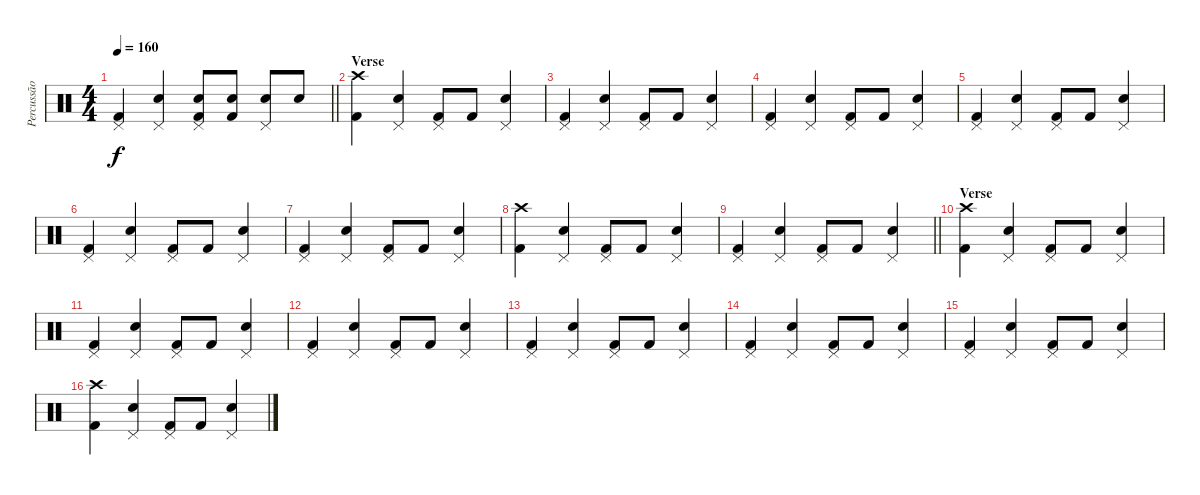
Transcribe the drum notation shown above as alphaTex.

\track ("Percussão" "Percussão") {instrument percussion}
\staff {score}
\articulation defaults
\ts (4 4)
\tempo 160
\clef neutral
\barLineRight lightlight
\ks c
("Pedal Hi-Hat (hit)" "Kick (hit) 2").4{dy f} ("Pedal Hi-Hat (hit)" "Snare (hit) 2").4 ("Pedal Hi-Hat (hit)" "Snare (hit) 2" "Kick (hit) 2").8 ("Snare (hit) 2" "Kick (hit) 2").8 ("Pedal Hi-Hat (hit)" "Snare (hit) 2").8 "Snare (hit) 2".8 |
\section ("" "Verse")
("Crash high (hit)" "Kick (hit) 2").4 ("Pedal Hi-Hat (hit)" "Snare (hit) 2").4 ("Pedal Hi-Hat (hit)" "Kick (hit) 2").8 "Kick (hit) 2".8 ("Pedal Hi-Hat (hit)" "Snare (hit) 2").4 |
("Pedal Hi-Hat (hit)" "Kick (hit) 2").4 ("Pedal Hi-Hat (hit)" "Snare (hit) 2").4 ("Pedal Hi-Hat (hit)" "Kick (hit) 2").8 "Kick (hit) 2".8 ("Pedal Hi-Hat (hit)" "Snare (hit) 2").4 |
("Pedal Hi-Hat (hit)" "Kick (hit) 2").4 ("Pedal Hi-Hat (hit)" "Snare (hit) 2").4 ("Pedal Hi-Hat (hit)" "Kick (hit) 2").8 "Kick (hit) 2".8 ("Pedal Hi-Hat (hit)" "Snare (hit) 2").4 |
("Pedal Hi-Hat (hit)" "Kick (hit) 2").4 ("Pedal Hi-Hat (hit)" "Snare (hit) 2").4 ("Pedal Hi-Hat (hit)" "Kick (hit) 2").8 "Kick (hit) 2".8 ("Pedal Hi-Hat (hit)" "Snare (hit) 2").4 |
("Pedal Hi-Hat (hit)" "Kick (hit) 2").4 ("Pedal Hi-Hat (hit)" "Snare (hit) 2").4 ("Pedal Hi-Hat (hit)" "Kick (hit) 2").8 "Kick (hit) 2".8 ("Pedal Hi-Hat (hit)" "Snare (hit) 2").4 |
("Pedal Hi-Hat (hit)" "Kick (hit) 2").4 ("Pedal Hi-Hat (hit)" "Snare (hit) 2").4 ("Pedal Hi-Hat (hit)" "Kick (hit) 2").8 "Kick (hit) 2".8 ("Pedal Hi-Hat (hit)" "Snare (hit) 2").4 |
("Crash high (hit)" "Kick (hit) 2").4 ("Pedal Hi-Hat (hit)" "Snare (hit) 2").4 ("Pedal Hi-Hat (hit)" "Kick (hit) 2").8 "Kick (hit) 2".8 ("Pedal Hi-Hat (hit)" "Snare (hit) 2").4 |
\barLineRight lightlight
("Pedal Hi-Hat (hit)" "Kick (hit) 2").4 ("Pedal Hi-Hat (hit)" "Snare (hit) 2").4 ("Pedal Hi-Hat (hit)" "Kick (hit) 2").8 "Kick (hit) 2".8 ("Pedal Hi-Hat (hit)" "Snare (hit) 2").4 |
\section ("" "Verse")
("Crash high (hit)" "Kick (hit) 2").4 ("Pedal Hi-Hat (hit)" "Snare (hit) 2").4 ("Pedal Hi-Hat (hit)" "Kick (hit) 2").8 "Kick (hit) 2".8 ("Pedal Hi-Hat (hit)" "Snare (hit) 2").4 |
("Pedal Hi-Hat (hit)" "Kick (hit) 2").4 ("Pedal Hi-Hat (hit)" "Snare (hit) 2").4 ("Pedal Hi-Hat (hit)" "Kick (hit) 2").8 "Kick (hit) 2".8 ("Pedal Hi-Hat (hit)" "Snare (hit) 2").4 |
("Pedal Hi-Hat (hit)" "Kick (hit) 2").4 ("Pedal Hi-Hat (hit)" "Snare (hit) 2").4 ("Pedal Hi-Hat (hit)" "Kick (hit) 2").8 "Kick (hit) 2".8 ("Pedal Hi-Hat (hit)" "Snare (hit) 2").4 |
("Pedal Hi-Hat (hit)" "Kick (hit) 2").4 ("Pedal Hi-Hat (hit)" "Snare (hit) 2").4 ("Pedal Hi-Hat (hit)" "Kick (hit) 2").8 "Kick (hit) 2".8 ("Pedal Hi-Hat (hit)" "Snare (hit) 2").4 |
("Pedal Hi-Hat (hit)" "Kick (hit) 2").4 ("Pedal Hi-Hat (hit)" "Snare (hit) 2").4 ("Pedal Hi-Hat (hit)" "Kick (hit) 2").8 "Kick (hit) 2".8 ("Pedal Hi-Hat (hit)" "Snare (hit) 2").4 |
("Pedal Hi-Hat (hit)" "Kick (hit) 2").4 ("Pedal Hi-Hat (hit)" "Snare (hit) 2").4 ("Pedal Hi-Hat (hit)" "Kick (hit) 2").8 "Kick (hit) 2".8 ("Pedal Hi-Hat (hit)" "Snare (hit) 2").4 |
("Crash high (hit)" "Kick (hit) 2").4 ("Pedal Hi-Hat (hit)" "Snare (hit) 2").4 ("Pedal Hi-Hat (hit)" "Kick (hit) 2").8 "Kick (hit) 2".8 ("Pedal Hi-Hat (hit)" "Snare (hit) 2").4
